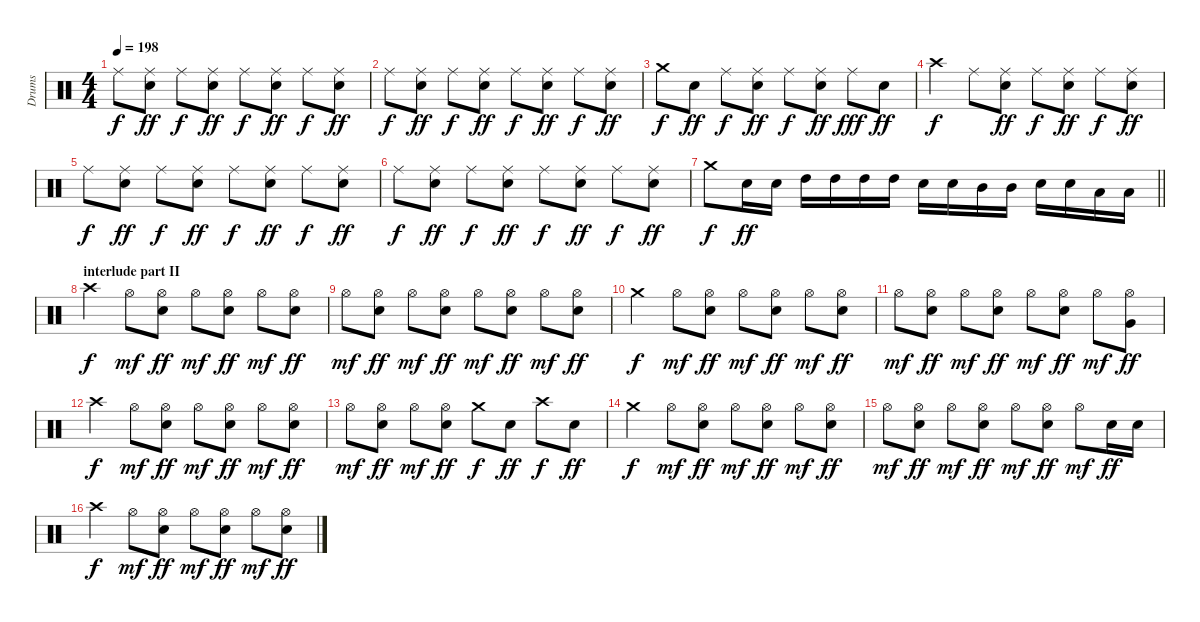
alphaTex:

\track ("Drums" "Drums") {instrument percussion}
\staff {score}
\articulation defaults
\ts (4 4)
\tempo 198
\clef neutral
\ks c "Ride (middle)".8{dy f}
("Ride (middle)" "Snare (hit) 2").8{dy ff} "Ride (middle)".8{dy f} ("Ride (middle)" "Snare (hit) 2").8{dy ff} "Ride (middle)".8{dy f} ("Ride (middle)" "Snare (hit) 2").8{dy ff} "Ride (middle)".8{dy f} ("Ride (middle)" "Snare (hit) 2").8{dy ff} |
"Ride (middle)".8{dy f} ("Ride (middle)" "Snare (hit) 2").8{dy ff} "Ride (middle)".8{dy f} ("Ride (middle)" "Snare (hit) 2").8{dy ff} "Ride (middle)".8{dy f} ("Ride (middle)" "Snare (hit) 2").8{dy ff} "Ride (middle)".8{dy f} ("Ride (middle)" "Snare (hit) 2").8{dy ff} |
"Crash medium (hit)".8{dy f} "Snare (hit) 2".8{dy ff} "Ride (middle)".8{dy f} ("Ride (middle)" "Snare (hit) 2").8{dy ff} "Ride (middle)".8{dy f} ("Ride (middle)" "Snare (hit) 2").8{dy ff} "Ride (middle)".8{dy fff} "Snare (hit) 2".8{dy ff} |
"Crash high (hit)".4{dy f} "Ride (middle)".8 ("Ride (middle)" "Snare (hit) 2").8{dy ff} "Ride (middle)".8{dy f} ("Ride (middle)" "Snare (hit) 2").8{dy ff} "Ride (middle)".8{dy f} ("Ride (middle)" "Snare (hit) 2").8{dy ff} |
"Ride (middle)".8{dy f} ("Ride (middle)" "Snare (hit) 2").8{dy ff} "Ride (middle)".8{dy f} ("Ride (middle)" "Snare (hit) 2").8{dy ff} "Ride (middle)".8{dy f} ("Ride (middle)" "Snare (hit) 2").8{dy ff} "Ride (middle)".8{dy f} ("Ride (middle)" "Snare (hit) 2").8{dy ff} |
"Ride (middle)".8{dy f} ("Ride (middle)" "Snare (hit) 2").8{dy ff} "Ride (middle)".8{dy f} ("Ride (middle)" "Snare (hit) 2").8{dy ff} "Ride (middle)".8{dy f} ("Ride (middle)" "Snare (hit) 2").8{dy ff} "Ride (middle)".8{dy f} ("Ride (middle)" "Snare (hit) 2").8{dy ff} |
\barLineRight lightlight "Crash medium (hit)".8{dy f} "Snare (hit) 2".16{dy ff} "Snare (hit) 2".16 "High Tom (hit)".16 "High Tom (hit)".16 "High Tom (hit)".16 "High Tom (hit)".16 "Snare (hit) 2".16 "Snare (hit) 2".16 "Mid Tom (hit)".16 "Mid Tom (hit)".16 "Snare (hit) 2".16 "Snare (hit) 2".16 "Low Tom (hit)".16 "Low Tom (hit)".16
|
\section ("" "interlude part II")
"Crash high (hit)".4{dy f} "Hi-Hat (open)".8{dy mf} ("Hi-Hat (open)" "Snare (hit) 2").8{dy ff} "Hi-Hat (open)".8{dy mf} ("Hi-Hat (open)" "Snare (hit) 2").8{dy ff} "Hi-Hat (open)".8{dy mf} ("Hi-Hat (open)" "Snare (hit) 2").8{dy ff} |
"Hi-Hat (open)".8{dy mf} ("Hi-Hat (open)" "Snare (hit) 2").8{dy ff} "Hi-Hat (open)".8{dy mf} ("Hi-Hat (open)" "Snare (hit) 2").8{dy ff} "Hi-Hat (open)".8{dy mf} ("Hi-Hat (open)" "Snare (hit) 2").8{dy ff} "Hi-Hat (open)".8{dy mf} ("Hi-Hat (open)" "Snare (hit) 2").8{dy ff} |
"Crash medium (hit)".4{dy f} "Hi-Hat (open)".8{dy mf} ("Hi-Hat (open)" "Snare (hit) 2").8{dy ff} "Hi-Hat (open)".8{dy mf} ("Hi-Hat (open)" "Snare (hit) 2").8{dy ff} "Hi-Hat (open)".8{dy mf} ("Hi-Hat (open)" "Snare (hit) 2").8{dy ff} |
"Hi-Hat (open)".8{dy mf} ("Hi-Hat (open)" "Snare (hit) 2").8{dy ff} "Hi-Hat (open)".8{dy mf} ("Hi-Hat (open)" "Snare (hit) 2").8{dy ff} "Hi-Hat (open)".8{dy mf} ("Hi-Hat (open)" "Snare (hit) 2").8{dy ff} "Hi-Hat (open)".8{dy mf} ("Hi-Hat (open)" "Very Low Tom (hit)").8{dy ff} |
"Crash high (hit)".4{dy f} "Hi-Hat (open)".8{dy mf} ("Hi-Hat (open)" "Snare (hit) 2").8{dy ff} "Hi-Hat (open)".8{dy mf} ("Hi-Hat (open)" "Snare (hit) 2").8{dy ff} "Hi-Hat (open)".8{dy mf} ("Hi-Hat (open)" "Snare (hit) 2").8{dy ff} |
"Hi-Hat (open)".8{dy mf} ("Hi-Hat (open)" "Snare (hit) 2").8{dy ff} "Hi-Hat (open)".8{dy mf} ("Hi-Hat (open)" "Snare (hit) 2").8{dy ff} "Crash medium (hit)".8{dy f} "Snare (hit) 2".8{dy ff} "Crash high (hit)".8{dy f} "Snare (hit) 2".8{dy ff} |
"Crash medium (hit)".4{dy f} "Hi-Hat (open)".8{dy mf} ("Hi-Hat (open)" "Snare (hit) 2").8{dy ff} "Hi-Hat (open)".8{dy mf} ("Hi-Hat (open)" "Snare (hit) 2").8{dy ff} "Hi-Hat (open)".8{dy mf} ("Hi-Hat (open)" "Snare (hit) 2").8{dy ff} |
"Hi-Hat (open)".8{dy mf} ("Hi-Hat (open)" "Snare (hit) 2").8{dy ff} "Hi-Hat (open)".8{dy mf} ("Hi-Hat (open)" "Snare (hit) 2").8{dy ff} "Hi-Hat (open)".8{dy mf} ("Hi-Hat (open)" "Snare (hit) 2").8{dy ff} "Hi-Hat (open)".8{dy mf} "Snare (hit) 2".16{dy ff} "Snare (hit) 2".16 |
"Crash high (hit)".4{dy f} "Hi-Hat (open)".8{dy mf} ("Hi-Hat (open)" "Snare (hit) 2").8{dy ff} "Hi-Hat (open)".8{dy mf} ("Hi-Hat (open)" "Snare (hit) 2").8{dy ff} "Hi-Hat (open)".8{dy mf} ("Hi-Hat (open)" "Snare (hit) 2").8{dy ff}
